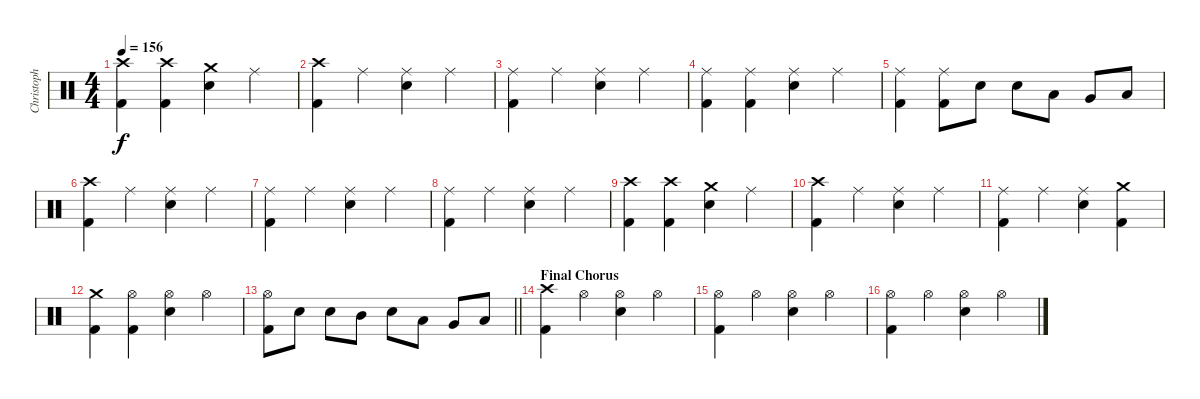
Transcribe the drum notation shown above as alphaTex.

\track ("Christoph Schneider" "Christoph ") {instrument percussion}
\staff {score}
\articulation defaults
\ts (4 4)
\tempo 156
\clef neutral
\ks c
("Crash high (hit)" "Kick (hit) 2").4{dy f} ("Crash high (hit)" "Kick (hit) 2").4 ("Crash medium (hit)" "Snare (hit) 2").4 "Ride (middle)".4 |
("Crash high (hit)" "Kick (hit) 2").4 "Ride (middle)".4 ("Ride (middle)" "Snare (hit) 2").4 "Ride (middle)".4 |
("Ride (middle)" "Kick (hit) 2").4 "Ride (middle)".4 ("Ride (middle)" "Snare (hit) 2").4 "Ride (middle)".4 |
("Ride (middle)" "Kick (hit) 2").4 ("Ride (middle)" "Kick (hit) 2").4 ("Ride (middle)" "Snare (hit) 2").4 "Ride (middle)".4 |
("Ride (middle)" "Kick (hit) 2").4 ("Ride (middle)" "Kick (hit) 2").8 "Snare (hit) 2".8 "Snare (hit) 2".8 "Low Tom (hit)".8 "Very Low Tom (hit)".8 "Low Floor Tom (hit)".8 |
("Crash high (hit)" "Kick (hit) 2").4 "Ride (middle)".4 ("Ride (middle)" "Snare (hit) 2").4 "Ride (middle)".4 |
("Ride (middle)" "Kick (hit) 2").4 "Ride (middle)".4 ("Ride (middle)" "Snare (hit) 2").4 "Ride (middle)".4 |
("Ride (middle)" "Kick (hit) 2").4 "Ride (middle)".4 ("Ride (middle)" "Snare (hit) 2").4 "Ride (middle)".4 |
("Crash high (hit)" "Kick (hit) 2").4 ("Crash high (hit)" "Kick (hit) 2").4 ("Crash medium (hit)" "Snare (hit) 2").4 "Ride (middle)".4 |
("Crash high (hit)" "Kick (hit) 2").4 "Ride (middle)".4 ("Ride (middle)" "Snare (hit) 2").4 "Ride (middle)".4 |
("Ride (middle)" "Kick (hit) 2").4 "Ride (middle)".4 ("Ride (middle)" "Snare (hit) 2").4 ("Crash medium (hit)" "Kick (hit) 2").4 |
("Crash medium (hit)" "Kick (hit) 2").4 ("Hi-Hat (open)" "Kick (hit) 2").4 ("Hi-Hat (open)" "Snare (hit) 2").4 "Hi-Hat (open)".4 |
\barLineRight lightlight
("Hi-Hat (open)" "Kick (hit) 2").8 "Snare (hit) 2".8 "Snare (hit) 2".8 "Mid Tom (hit)".8 "Snare (hit) 2".8 "Low Tom (hit)".8 "Very Low Tom (hit)".8 "Low Floor Tom (hit)".8 |
\section ("" "Final Chorus")
("Crash high (hit)" "Kick (hit) 2").4 "Hi-Hat (open)".4 ("Hi-Hat (open)" "Snare (hit) 2").4 "Hi-Hat (open)".4 |
("Hi-Hat (open)" "Kick (hit) 2").4 "Hi-Hat (open)".4 ("Hi-Hat (open)" "Snare (hit) 2").4 "Hi-Hat (open)".4 |
("Hi-Hat (open)" "Kick (hit) 2").4 "Hi-Hat (open)".4 ("Hi-Hat (open)" "Snare (hit) 2").4 "Hi-Hat (open)".4
